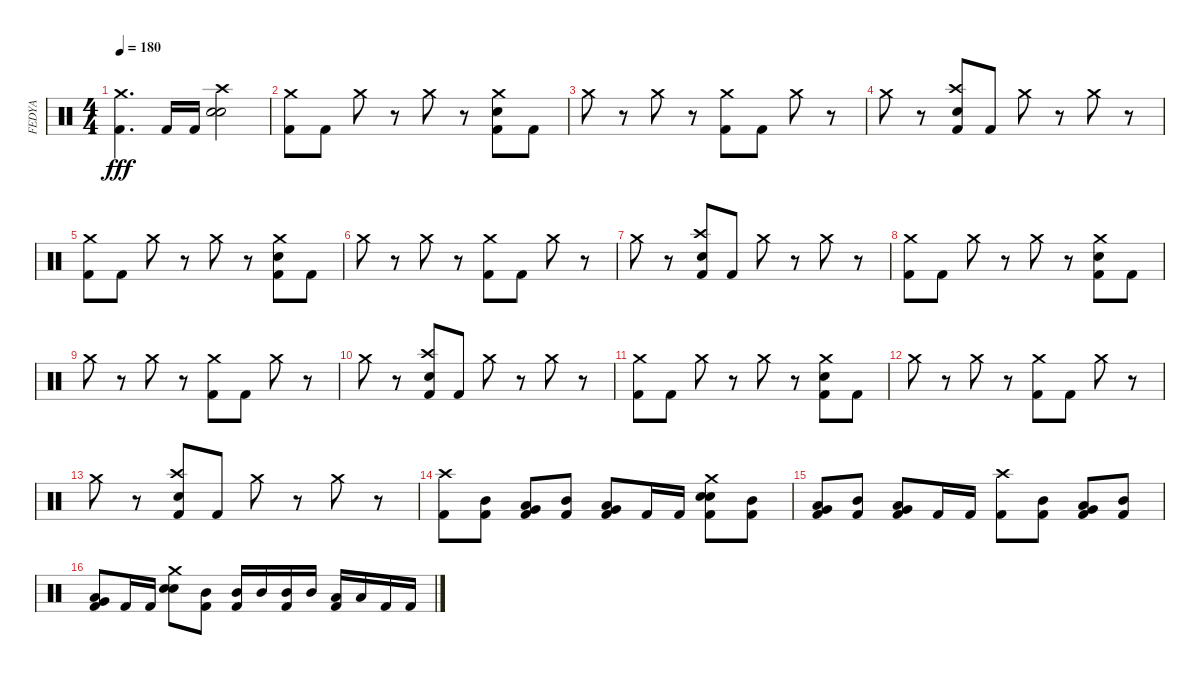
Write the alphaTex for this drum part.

\track ("FEDYA" "FEDYA") {instrument percussion}
\staff {score}
\articulation defaults
\ts (4 4)
\tempo 180
\clef neutral
\ks c
("Crash medium (hit)" "Kick (hit) 2").4{d dy fff} "Kick (hit) 2".16 "Kick (hit) 2".16 ("Crash high (hit)" "Electric Snare (hit)" "Snare (hit) 2").2 |
("Crash medium (hit)" "Kick (hit) 2").8 "Kick (hit) 2".8 "Crash medium (hit)".8 r.8 "Crash medium (hit)".8 r.8 ("Crash medium (hit)" "Snare (hit) 2" "Kick (hit) 2").8 "Kick (hit) 2".8 |
"Crash medium (hit)".8 r.8 "Crash medium (hit)".8 r.8 ("Crash medium (hit)" "Kick (hit) 2").8 "Kick (hit) 2".8 "Crash medium (hit)".8 r.8 |
"Crash medium (hit)".8 r.8 ("Crash high (hit)" "Snare (hit) 2" "Kick (hit) 2").8 "Kick (hit) 2".8 "Crash medium (hit)".8 r.8 "Crash medium (hit)".8 r.8 |
("Crash medium (hit)" "Kick (hit) 2").8 "Kick (hit) 2".8 "Crash medium (hit)".8 r.8 "Crash medium (hit)".8 r.8 ("Crash medium (hit)" "Snare (hit) 2" "Kick (hit) 2").8 "Kick (hit) 2".8 |
"Crash medium (hit)".8 r.8 "Crash medium (hit)".8 r.8 ("Crash medium (hit)" "Kick (hit) 2").8 "Kick (hit) 2".8 "Crash medium (hit)".8 r.8 |
"Crash medium (hit)".8 r.8 ("Crash high (hit)" "Snare (hit) 2" "Kick (hit) 2").8 "Kick (hit) 2".8 "Crash medium (hit)".8 r.8 "Crash medium (hit)".8 r.8 |
("Crash medium (hit)" "Kick (hit) 2").8 "Kick (hit) 2".8 "Crash medium (hit)".8 r.8 "Crash medium (hit)".8 r.8 ("Crash medium (hit)" "Snare (hit) 2" "Kick (hit) 2").8 "Kick (hit) 2".8 |
"Crash medium (hit)".8 r.8 "Crash medium (hit)".8 r.8 ("Crash medium (hit)" "Kick (hit) 2").8 "Kick (hit) 2".8 "Crash medium (hit)".8 r.8 |
"Crash medium (hit)".8 r.8 ("Crash high (hit)" "Snare (hit) 2" "Kick (hit) 2").8 "Kick (hit) 2".8 "Crash medium (hit)".8 r.8 "Crash medium (hit)".8 r.8 |
("Crash medium (hit)" "Kick (hit) 2").8 "Kick (hit) 2".8 "Crash medium (hit)".8 r.8 "Crash medium (hit)".8 r.8 ("Crash medium (hit)" "Snare (hit) 2" "Kick (hit) 2").8 "Kick (hit) 2".8 |
"Crash medium (hit)".8 r.8 "Crash medium (hit)".8 r.8 ("Crash medium (hit)" "Kick (hit) 2").8 "Kick (hit) 2".8 "Crash medium (hit)".8 r.8 |
"Crash medium (hit)".8 r.8 ("Crash high (hit)" "Snare (hit) 2" "Kick (hit) 2").8 "Kick (hit) 2".8 "Crash medium (hit)".8 r.8 "Crash medium (hit)".8 r.8 |
("Crash high (hit)" "Kick (hit) 2").8 ("Mid Tom (hit)" "Kick (hit) 2").8 ("Very Low Tom (hit)" "Low Tom (hit)" "Kick (hit) 2").8 ("Mid Tom (hit)" "Kick (hit) 2").8 ("Very Low Tom (hit)" "Low Tom (hit)" "Kick (hit) 2").8 "Kick (hit) 2".16 "Kick (hit) 2".16 ("Crash medium (hit)" "Electric Snare (hit)" "Snare (hit) 2" "Kick (hit) 2").8 ("Mid Tom (hit)" "Kick (hit) 2").8 |
("Very Low Tom (hit)" "Low Tom (hit)" "Kick (hit) 2").8 ("Mid Tom (hit)" "Kick (hit) 2").8 ("Very Low Tom (hit)" "Low Tom (hit)" "Kick (hit) 2").8 "Kick (hit) 2".16 "Kick (hit) 2".16 ("Crash high (hit)" "Kick (hit) 2").8 ("Mid Tom (hit)" "Kick (hit) 2").8 ("Low Tom (hit)" "Very Low Tom (hit)" "Kick (hit) 2").8 ("Mid Tom (hit)" "Kick (hit) 2").8 |
("Low Tom (hit)" "Very Low Tom (hit)" "Kick (hit) 2").8 "Kick (hit) 2".16 "Kick (hit) 2".16 ("Crash medium (hit)" "Electric Snare (hit)" "Snare (hit) 2").8 ("Mid Tom (hit)" "Kick (hit) 2").8 ("Mid Tom (hit)" "Kick (hit) 2").16 "Mid Tom (hit)".16 ("Mid Tom (hit)" "Kick (hit) 2").16 "Mid Tom (hit)".16 ("Low Tom (hit)" "Kick (hit) 2").16 "Low Tom (hit)".16 "Kick (hit) 2".16 "Kick (hit) 2".16
